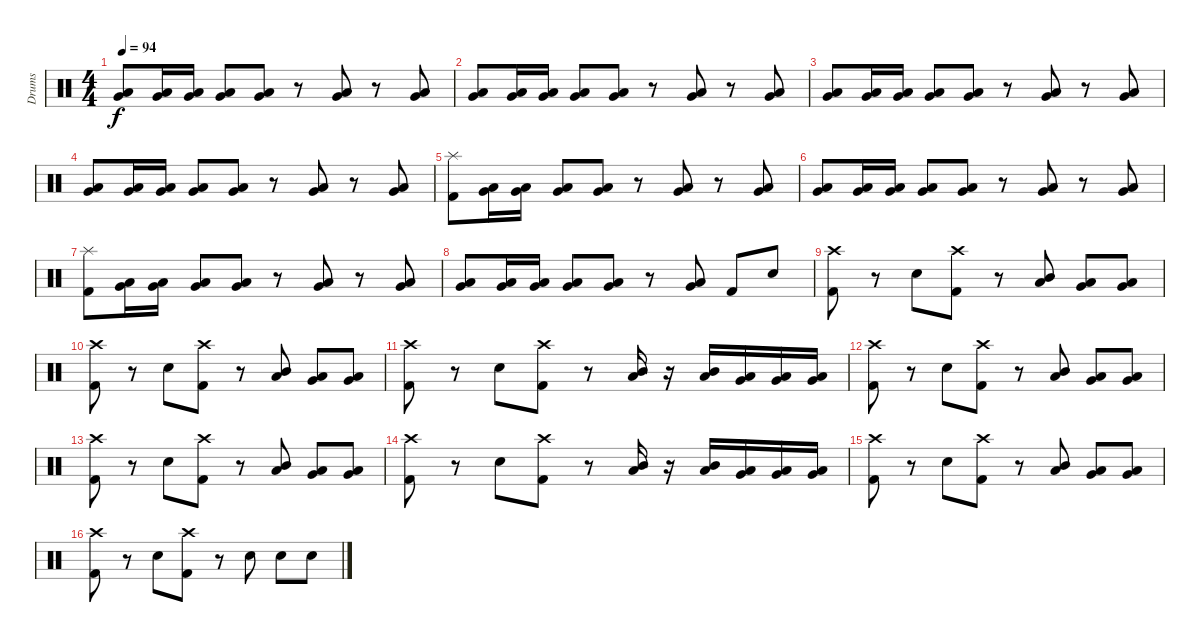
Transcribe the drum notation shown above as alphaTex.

\track ("Drums" "Drums") {instrument percussion}
\staff {score}
\articulation defaults
\ts (4 4)
\tempo 94
\clef neutral
\ks c
("Low Tom (hit)" "Very Low Tom (hit)").8{dy f} ("Low Tom (hit)" "Very Low Tom (hit)").16 ("Low Tom (hit)" "Very Low Tom (hit)").16 ("Low Tom (hit)" "Very Low Tom (hit)").8 ("Low Tom (hit)" "Very Low Tom (hit)").8 r.8 ("Low Tom (hit)" "Very Low Tom (hit)").8 r.8 ("Low Tom (hit)" "Very Low Tom (hit)").8 |
("Low Tom (hit)" "Very Low Tom (hit)").8 ("Low Tom (hit)" "Very Low Tom (hit)").16 ("Low Tom (hit)" "Very Low Tom (hit)").16 ("Low Tom (hit)" "Very Low Tom (hit)").8 ("Low Tom (hit)" "Very Low Tom (hit)").8 r.8 ("Low Tom (hit)" "Very Low Tom (hit)").8 r.8 ("Low Tom (hit)" "Very Low Tom (hit)").8 |
("Low Tom (hit)" "Very Low Tom (hit)").8 ("Low Tom (hit)" "Very Low Tom (hit)").16 ("Low Tom (hit)" "Very Low Tom (hit)").16 ("Low Tom (hit)" "Very Low Tom (hit)").8 ("Low Tom (hit)" "Very Low Tom (hit)").8 r.8 ("Low Tom (hit)" "Very Low Tom (hit)").8 r.8 ("Low Tom (hit)" "Very Low Tom (hit)").8 |
("Low Tom (hit)" "Very Low Tom (hit)").8 ("Low Tom (hit)" "Very Low Tom (hit)").16 ("Low Tom (hit)" "Very Low Tom (hit)").16 ("Low Tom (hit)" "Very Low Tom (hit)").8 ("Low Tom (hit)" "Very Low Tom (hit)").8 r.8 ("Low Tom (hit)" "Very Low Tom (hit)").8 r.8 ("Low Tom (hit)" "Very Low Tom (hit)").8 |
("Splash (hit)" "Kick (hit) 2").8 ("Low Tom (hit)" "Very Low Tom (hit)").16 ("Low Tom (hit)" "Very Low Tom (hit)").16 ("Low Tom (hit)" "Very Low Tom (hit)").8 ("Low Tom (hit)" "Very Low Tom (hit)").8 r.8 ("Low Tom (hit)" "Very Low Tom (hit)").8 r.8 ("Low Tom (hit)" "Very Low Tom (hit)").8 |
("Low Tom (hit)" "Very Low Tom (hit)").8 ("Low Tom (hit)" "Very Low Tom (hit)").16 ("Low Tom (hit)" "Very Low Tom (hit)").16 ("Low Tom (hit)" "Very Low Tom (hit)").8 ("Low Tom (hit)" "Very Low Tom (hit)").8 r.8 ("Low Tom (hit)" "Very Low Tom (hit)").8 r.8 ("Low Tom (hit)" "Very Low Tom (hit)").8 |
("Splash (hit)" "Kick (hit) 2").8 ("Low Tom (hit)" "Very Low Tom (hit)").16 ("Low Tom (hit)" "Very Low Tom (hit)").16 ("Low Tom (hit)" "Very Low Tom (hit)").8 ("Low Tom (hit)" "Very Low Tom (hit)").8 r.8 ("Low Tom (hit)" "Very Low Tom (hit)").8 r.8 ("Low Tom (hit)" "Very Low Tom (hit)").8 |
("Low Tom (hit)" "Very Low Tom (hit)").8 ("Low Tom (hit)" "Very Low Tom (hit)").16 ("Low Tom (hit)" "Very Low Tom (hit)").16 ("Low Tom (hit)" "Very Low Tom (hit)").8 ("Low Tom (hit)" "Very Low Tom (hit)").8 r.8 ("Low Tom (hit)" "Very Low Tom (hit)").8 "Kick (hit) 2".8 "Snare (hit) 2".8 |
("Crash high (hit)" "Kick (hit) 2").8 r.8 "Snare (hit) 2".8 ("Crash high (hit)" "Kick (hit) 2").8 r.8 ("Mid Tom (hit)" "Low Tom (hit)").8 ("Low Tom (hit)" "Very Low Tom (hit)").8 ("Very Low Tom (hit)" "Low Floor Tom (hit)").8 |
("Crash high (hit)" "Kick (hit) 2").8 r.8 "Snare (hit) 2".8 ("Crash high (hit)" "Kick (hit) 2").8 r.8 ("Mid Tom (hit)" "Low Tom (hit)").8 ("Low Tom (hit)" "Very Low Tom (hit)").8 ("Very Low Tom (hit)" "Low Floor Tom (hit)").8 |
("Crash high (hit)" "Kick (hit) 2").8 r.8 "Snare (hit) 2".8 ("Crash high (hit)" "Kick (hit) 2").8 r.8 ("Mid Tom (hit)" "Low Tom (hit)").16 r.16 ("Mid Tom (hit)" "Low Tom (hit)").16 ("Low Tom (hit)" "Very Low Tom (hit)").16 ("Low Tom (hit)" "Very Low Tom (hit)").16 ("Very Low Tom (hit)" "Low Floor Tom (hit)").16 |
("Crash high (hit)" "Kick (hit) 2").8 r.8 "Snare (hit) 2".8 ("Crash high (hit)" "Kick (hit) 2").8 r.8 ("Mid Tom (hit)" "Low Tom (hit)").8 ("Low Tom (hit)" "Very Low Tom (hit)").8 ("Very Low Tom (hit)" "Low Floor Tom (hit)").8 |
("Crash high (hit)" "Kick (hit) 2").8 r.8 "Snare (hit) 2".8 ("Crash high (hit)" "Kick (hit) 2").8 r.8 ("Mid Tom (hit)" "Low Tom (hit)").8 ("Low Tom (hit)" "Very Low Tom (hit)").8 ("Very Low Tom (hit)" "Low Floor Tom (hit)").8 |
("Crash high (hit)" "Kick (hit) 2").8 r.8 "Snare (hit) 2".8 ("Crash high (hit)" "Kick (hit) 2").8 r.8 ("Mid Tom (hit)" "Low Tom (hit)").16 r.16 ("Mid Tom (hit)" "Low Tom (hit)").16 ("Low Tom (hit)" "Very Low Tom (hit)").16 ("Low Tom (hit)" "Very Low Tom (hit)").16 ("Very Low Tom (hit)" "Low Floor Tom (hit)").16 |
("Crash high (hit)" "Kick (hit) 2").8 r.8 "Snare (hit) 2".8 ("Crash high (hit)" "Kick (hit) 2").8 r.8 ("Mid Tom (hit)" "Low Tom (hit)").8 ("Low Tom (hit)" "Very Low Tom (hit)").8 ("Very Low Tom (hit)" "Low Floor Tom (hit)").8 |
("Crash high (hit)" "Kick (hit) 2").8 r.8 "Snare (hit) 2".8 ("Crash high (hit)" "Kick (hit) 2").8 r.8 "Electric Snare (hit)".8 "Electric Snare (hit)".8 "Electric Snare (hit)".8
